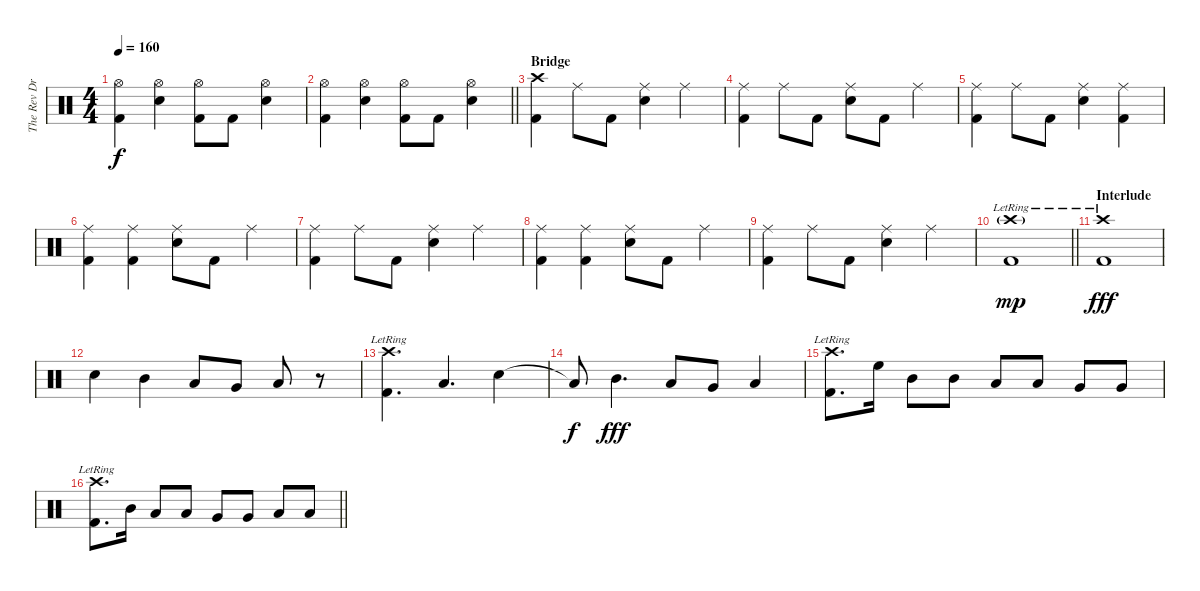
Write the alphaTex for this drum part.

\track ("The Rev Drum" "The Rev Dr") {instrument percussion}
\staff {score}
\articulation defaults
\ts (4 4)
\tempo 160
\clef neutral
\ks c
("Hi-Hat (open)" "Kick (hit) 2").4{dy f} ("Hi-Hat (open)" "Electric Snare (hit)").4 ("Hi-Hat (open)" "Kick (hit) 2").8 "Kick (hit) 2".8 ("Hi-Hat (open)" "Electric Snare (hit)").4 |
\barLineRight lightlight
("Hi-Hat (open)" "Kick (hit) 2").4 ("Hi-Hat (open)" "Electric Snare (hit)").4 ("Hi-Hat (open)" "Kick (hit) 2").8 "Kick (hit) 2".8 ("Hi-Hat (open)" "Electric Snare (hit)").4 |
\section ("" "Bridge")
("Crash high (hit)" "Kick (hit) 2").4 "Ride (middle)".8 "Kick (hit) 2".8 ("Ride (middle)" "Electric Snare (hit)").4 "Ride (middle)".4 |
("Ride (middle)" "Kick (hit) 2").4 "Ride (middle)".8 "Kick (hit) 2".8 ("Ride (middle)" "Electric Snare (hit)").8 "Kick (hit) 2".8 "Ride (middle)".4 |
("Ride (middle)" "Kick (hit) 2").4 "Ride (middle)".8 "Kick (hit) 2".8 ("Ride (middle)" "Electric Snare (hit)").4 ("Ride (middle)" "Kick (hit) 2").4 |
("Ride (middle)" "Kick (hit) 2").4 ("Ride (middle)" "Kick (hit) 2").4 ("Ride (middle)" "Electric Snare (hit)").8 "Kick (hit) 2".8 "Ride (middle)".4 |
("Ride (middle)" "Kick (hit) 2").4 "Ride (middle)".8 "Kick (hit) 2".8 ("Ride (middle)" "Electric Snare (hit)").4 "Ride (middle)".4 |
("Ride (middle)" "Kick (hit) 2").4 ("Ride (middle)" "Kick (hit) 2").4 ("Ride (middle)" "Electric Snare (hit)").8 "Kick (hit) 2".8 "Ride (middle)".4 |
("Ride (middle)" "Kick (hit) 2").4 "Ride (middle)".8 "Kick (hit) 2".8 ("Ride (middle)" "Electric Snare (hit)").4 "Ride (middle)".4 |
\barLineRight lightlight
("Crash high (hit)"{g} "Kick (hit) 2"{lr}).1{dy mp} |
\section ("" "Interlude")
("Crash high (hit)"{lr} "Kick (hit) 2").1{dy fff} |
"Electric Snare (hit)".4 "Mid Tom (hit)".4 "Low Tom (hit)".8 "Very Low Tom (hit)".8 "Low Floor Tom (hit)".8 r.8 |
("Crash high (hit)"{lr} "Kick (hit) 2").4{d} "Low Tom (hit)".4{d} "Electric Snare (hit)".4 |
"Low Tom (hit)"{t}.8{dy f} "Mid Tom (hit)".4{d dy fff} "Low Tom (hit)".8 "Very Low Tom (hit)".8 "Low Floor Tom (hit)".4 |
("Crash high (hit)"{lr} "Kick (hit) 2").8{d} "High Floor Tom (hit)".16 "Mid Tom (hit)".8 "Mid Tom (hit)".8 "Low Tom (hit)".8 "Low Tom (hit)".8 "Very Low Tom (hit)".8 "Very Low Tom (hit)".8 |
\barLineRight lightlight
("Crash high (hit)"{lr} "Kick (hit) 2").8{d} "Mid Tom (hit)".16 "Low Tom (hit)".8 "Low Tom (hit)".8 "Very Low Tom (hit)".8 "Very Low Tom (hit)".8 "Low Floor Tom (hit)".8 "Low Floor Tom (hit)".8
